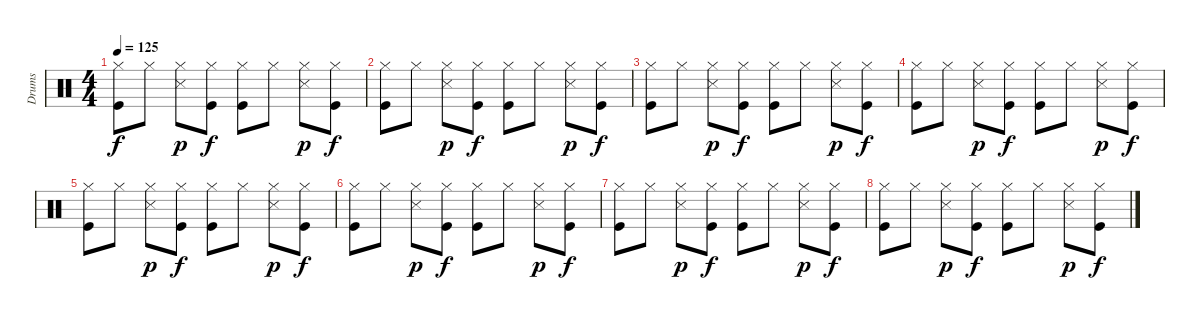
\track ("Drums" "Drums") {instrument percussion}
\staff {score}
\articulation defaults
\ts (4 4)
\tempo 125
\clef neutral
\ks c
("Hi-Hat (closed)" "Kick (hit)").8{dy f} "Hi-Hat (closed)".8 ("Hi-Hat (closed)" "Snare (side stick) 3").8{dy p} ("Hi-Hat (closed)" "Kick (hit)").8{dy f} ("Hi-Hat (closed)" "Kick (hit)").8 "Hi-Hat (closed)".8 ("Hi-Hat (closed)" "Snare (side stick) 3").8{dy p} ("Hi-Hat (closed)" "Kick (hit)").8{dy f} |
("Hi-Hat (closed)" "Kick (hit)").8 "Hi-Hat (closed)".8 ("Hi-Hat (closed)" "Snare (side stick) 3").8{dy p} ("Hi-Hat (closed)" "Kick (hit)").8{dy f} ("Hi-Hat (closed)" "Kick (hit)").8 "Hi-Hat (closed)".8 ("Hi-Hat (closed)" "Snare (side stick) 3").8{dy p} ("Hi-Hat (closed)" "Kick (hit)").8{dy f} |
("Hi-Hat (closed)" "Kick (hit)").8 "Hi-Hat (closed)".8 ("Hi-Hat (closed)" "Snare (side stick) 3").8{dy p} ("Hi-Hat (closed)" "Kick (hit)").8{dy f} ("Hi-Hat (closed)" "Kick (hit)").8 "Hi-Hat (closed)".8 ("Hi-Hat (closed)" "Snare (side stick) 3").8{dy p} ("Hi-Hat (closed)" "Kick (hit)").8{dy f} |
("Hi-Hat (closed)" "Kick (hit)").8 "Hi-Hat (closed)".8 ("Hi-Hat (closed)" "Snare (side stick) 3").8{dy p} ("Hi-Hat (closed)" "Kick (hit)").8{dy f} ("Hi-Hat (closed)" "Kick (hit)").8 "Hi-Hat (closed)".8 ("Hi-Hat (closed)" "Snare (side stick) 3").8{dy p} ("Hi-Hat (closed)" "Kick (hit)").8{dy f} |
("Hi-Hat (closed)" "Kick (hit)").8 "Hi-Hat (closed)".8 ("Hi-Hat (closed)" "Snare (side stick) 3").8{dy p} ("Hi-Hat (closed)" "Kick (hit)").8{dy f} ("Hi-Hat (closed)" "Kick (hit)").8 "Hi-Hat (closed)".8 ("Hi-Hat (closed)" "Snare (side stick) 3").8{dy p} ("Hi-Hat (closed)" "Kick (hit)").8{dy f} |
("Hi-Hat (closed)" "Kick (hit)").8 "Hi-Hat (closed)".8 ("Hi-Hat (closed)" "Snare (side stick) 3").8{dy p} ("Hi-Hat (closed)" "Kick (hit)").8{dy f} ("Hi-Hat (closed)" "Kick (hit)").8 "Hi-Hat (closed)".8 ("Hi-Hat (closed)" "Snare (side stick) 3").8{dy p} ("Hi-Hat (closed)" "Kick (hit)").8{dy f} |
("Hi-Hat (closed)" "Kick (hit)").8 "Hi-Hat (closed)".8 ("Hi-Hat (closed)" "Snare (side stick) 3").8{dy p} ("Hi-Hat (closed)" "Kick (hit)").8{dy f} ("Hi-Hat (closed)" "Kick (hit)").8 "Hi-Hat (closed)".8 ("Hi-Hat (closed)" "Snare (side stick) 3").8{dy p} ("Hi-Hat (closed)" "Kick (hit)").8{dy f} |
("Hi-Hat (closed)" "Kick (hit)").8 "Hi-Hat (closed)".8 ("Hi-Hat (closed)" "Snare (side stick) 3").8{dy p} ("Hi-Hat (closed)" "Kick (hit)").8{dy f} ("Hi-Hat (closed)" "Kick (hit)").8 "Hi-Hat (closed)".8 ("Hi-Hat (closed)" "Snare (side stick) 3").8{dy p} ("Hi-Hat (closed)" "Kick (hit)").8{dy f}
